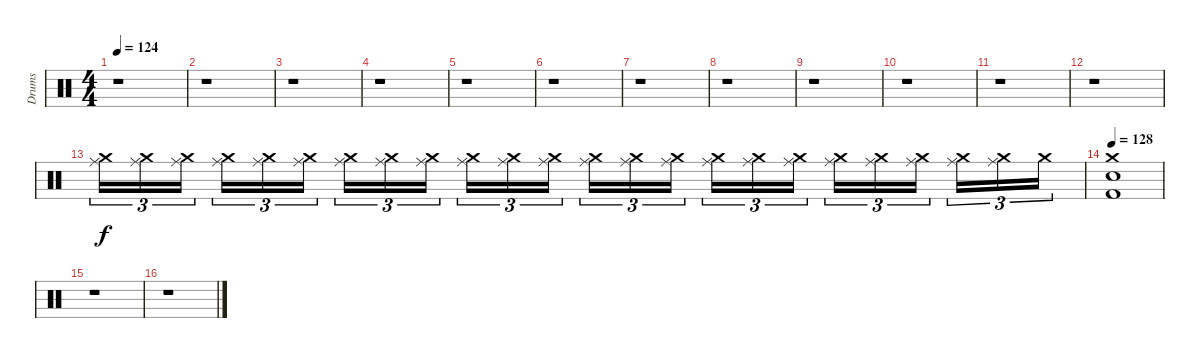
\track ("Drums" "Drums") {instrument percussion}
\staff {score}
\articulation defaults
\ts (4 4)
\tempo 124
\clef neutral
\ks c
r.1{dy f} |
r.1 |
r.1 |
r.1 |
r.1 |
r.1 |
r.1 |
r.1 |
r.1 |
r.1 |
r.1 |
r.1{volume 0} |
("Ride (middle)" "Crash medium (hit)").16{tu (3 2) volume 16} ("Ride (middle)" "Crash medium (hit)").16{tu (3 2)} ("Ride (middle)" "Crash medium (hit)").16{tu (3 2) beam splitsecondary} ("Ride (middle)" "Crash medium (hit)").16{tu (3 2)} ("Ride (middle)" "Crash medium (hit)").16{tu (3 2)} ("Ride (middle)" "Crash medium (hit)").16{tu (3 2)} ("Ride (middle)" "Crash medium (hit)").16{tu (3 2)} ("Ride (middle)" "Crash medium (hit)").16{tu (3 2)} ("Ride (middle)" "Crash medium (hit)").16{tu (3 2) beam splitsecondary} ("Ride (middle)" "Crash medium (hit)").16{tu (3 2)} ("Ride (middle)" "Crash medium (hit)").16{tu (3 2)} ("Ride (middle)" "Crash medium (hit)").16{tu (3 2)} ("Ride (middle)" "Crash medium (hit)").16{tu (3 2)} ("Ride (middle)" "Crash medium (hit)").16{tu (3 2)} ("Ride (middle)" "Crash medium (hit)").16{tu (3 2) beam splitsecondary} ("Ride (middle)" "Crash medium (hit)").16{tu (3 2)} ("Ride (middle)" "Crash medium (hit)").16{tu (3 2)} ("Ride (middle)" "Crash medium (hit)").16{tu (3 2)} ("Ride (middle)" "Crash medium (hit)").16{tu (3 2)} ("Ride (middle)" "Crash medium (hit)").16{tu (3 2)} ("Ride (middle)" "Crash medium (hit)").16{tu (3 2) beam splitsecondary} ("Ride (middle)" "Crash medium (hit)").16{tu (3 2)} ("Ride (middle)" "Crash medium (hit)").16{tu (3 2)} "Crash medium (hit)".16{tu (3 2)} |
\tempo 130
\tempo 128
("Crash medium (hit)" "Electric Snare (hit)" "Kick (hit) 2").1 |
r.1 |
r.1
